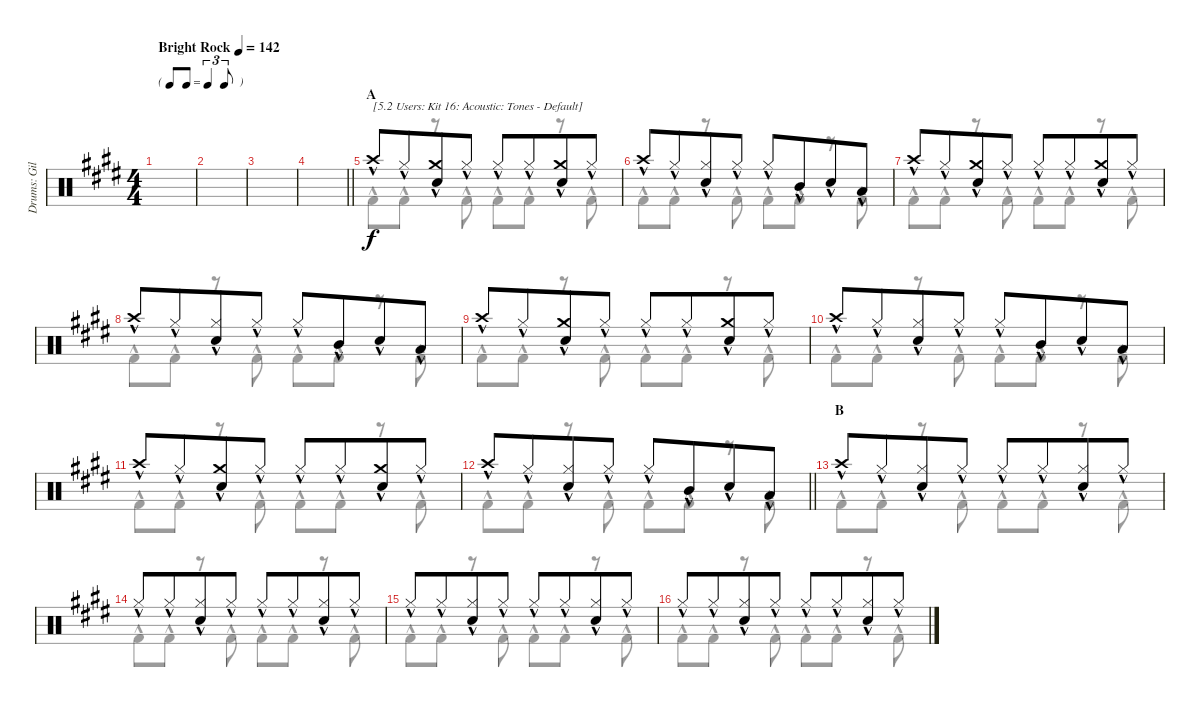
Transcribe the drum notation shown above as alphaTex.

\track ("Drums: Gil" "Drums: Gil") {instrument percussion}
\staff {score}
\articulation defaults
\voice
\ts (4 4)
\tf triplet8th
\tempo (142 "Bright Rock")
\clef neutral
\ks e
|
|
|
\barLineRight lightlight
|
\section ("" "A")
"Crash high (hit)"{hac}.8{txt "[5.2 Users: Kit 16: Acoustic: Tones - Default]"} "Hi-Hat (closed)"{hac}.8{beam merge} ("Crash medium (hit)"{hac} "Snare (hit) 2"{hac}).8 "Hi-Hat (closed)"{hac}.8 "Hi-Hat (closed)"{hac}.8 "Hi-Hat (closed)"{hac}.8{beam merge} ("Crash medium (hit)"{hac} "Snare (hit) 2"{hac}).8 "Hi-Hat (closed)"{hac}.8 |
"Crash high (hit)"{hac}.8 "Hi-Hat (closed)"{hac}.8{beam merge} ("Hi-Hat (closed)"{hac} "Snare (hit) 2"{hac}).8 "Hi-Hat (closed)"{hac}.8 "Hi-Hat (closed)"{hac}.8 "Mid Tom (hit)"{hac}.8{beam merge} "Snare (hit) 2"{hac}.8 "Low Tom (hit)"{hac}.8 |
"Crash high (hit)"{hac}.8 "Hi-Hat (closed)"{hac}.8{beam merge} ("Crash medium (hit)"{hac} "Snare (hit) 2"{hac}).8 "Hi-Hat (closed)"{hac}.8 "Hi-Hat (closed)"{hac}.8 "Hi-Hat (closed)"{hac}.8{beam merge} ("Crash medium (hit)"{hac} "Snare (hit) 2"{hac}).8 "Hi-Hat (closed)"{hac}.8 |
"Crash high (hit)"{hac}.8 "Hi-Hat (closed)"{hac}.8{beam merge} ("Hi-Hat (closed)"{hac} "Snare (hit) 2"{hac}).8 "Hi-Hat (closed)"{hac}.8 "Hi-Hat (closed)"{hac}.8 "Mid Tom (hit)"{hac}.8{beam merge} "Snare (hit) 2"{hac}.8 "Low Tom (hit)"{hac}.8 |
"Crash high (hit)"{hac}.8 "Hi-Hat (closed)"{hac}.8{beam merge} ("Crash medium (hit)"{hac} "Snare (hit) 2"{hac}).8 "Hi-Hat (closed)"{hac}.8 "Hi-Hat (closed)"{hac}.8 "Hi-Hat (closed)"{hac}.8{beam merge} ("Crash medium (hit)"{hac} "Snare (hit) 2"{hac}).8 "Hi-Hat (closed)"{hac}.8 |
"Crash high (hit)"{hac}.8 "Hi-Hat (closed)"{hac}.8{beam merge} ("Hi-Hat (closed)"{hac} "Snare (hit) 2"{hac}).8 "Hi-Hat (closed)"{hac}.8 "Hi-Hat (closed)"{hac}.8 "Mid Tom (hit)"{hac}.8{beam merge} "Snare (hit) 2"{hac}.8 "Low Tom (hit)"{hac}.8 |
"Crash high (hit)"{hac}.8 "Hi-Hat (closed)"{hac}.8{beam merge} ("Crash medium (hit)"{hac} "Snare (hit) 2"{hac}).8 "Hi-Hat (closed)"{hac}.8 "Hi-Hat (closed)"{hac}.8 "Hi-Hat (closed)"{hac}.8{beam merge} ("Crash medium (hit)"{hac} "Snare (hit) 2"{hac}).8 "Hi-Hat (closed)"{hac}.8 |
\barLineRight lightlight "Crash high (hit)"{hac}.8 "Hi-Hat (closed)"{hac}.8{beam merge}
("Hi-Hat (closed)"{hac} "Snare (hit) 2"{hac}).8 "Hi-Hat (closed)"{hac}.8 "Hi-Hat (closed)"{hac}.8 "Mid Tom (hit)"{hac}.8{beam merge} "Snare (hit) 2"{hac}.8 "Low Tom (hit)"{hac}.8 |
\section ("" "B")
"Crash high (hit)"{hac}.8 "Hi-Hat (closed)"{hac}.8{beam merge} ("Hi-Hat (closed)"{hac} "Snare (hit) 2"{hac}).8 "Hi-Hat (closed)"{hac}.8 "Hi-Hat (closed)"{hac}.8 "Hi-Hat (closed)"{hac}.8{beam merge} ("Hi-Hat (closed)"{hac} "Snare (hit) 2"{hac}).8 "Hi-Hat (closed)"{hac}.8 |
"Hi-Hat (closed)"{hac}.8 "Hi-Hat (closed)"{hac}.8{beam merge} ("Hi-Hat (closed)"{hac} "Snare (hit) 2"{hac}).8 "Hi-Hat (closed)"{hac}.8 "Hi-Hat (closed)"{hac}.8 "Hi-Hat (closed)"{hac}.8{beam merge} ("Hi-Hat (closed)"{hac} "Snare (hit) 2"{hac}).8 "Hi-Hat (closed)"{hac}.8 |
"Hi-Hat (closed)"{hac}.8 "Hi-Hat (closed)"{hac}.8{beam merge} ("Hi-Hat (closed)"{hac} "Snare (hit) 2"{hac}).8 "Hi-Hat (closed)"{hac}.8 "Hi-Hat (closed)"{hac}.8 "Hi-Hat (closed)"{hac}.8{beam merge} ("Hi-Hat (closed)"{hac} "Snare (hit) 2"{hac}).8 "Hi-Hat (closed)"{hac}.8 |
"Hi-Hat (closed)"{hac}.8 "Hi-Hat (closed)"{hac}.8{beam merge} ("Hi-Hat (closed)"{hac} "Snare (hit) 2"{hac}).8 "Hi-Hat (closed)"{hac}.8 "Hi-Hat (closed)"{hac}.8 "Hi-Hat (closed)"{hac}.8{beam merge} ("Hi-Hat (closed)"{hac} "Snare (hit) 2"{hac}).8 "Hi-Hat (closed)"{hac}.8
\voice
\clef neutral
\ottava regular
\simile none
\ks e
|
|
|
\barLineRight lightlight
|
"Kick (hit) 2"{hac}.8 "Kick (hit) 2"{hac}.8 r.8 "Kick (hit) 2"{hac}.8 "Kick (hit) 2"{hac}.8 "Kick (hit) 2"{hac}.8 r.8 "Kick (hit) 2"{hac}.8 |
"Kick (hit) 2"{hac}.8 "Kick (hit) 2"{hac}.8 r.8 "Kick (hit) 2"{hac}.8 "Kick (hit) 2"{hac}.8 "Kick (hit) 2"{hac}.8 r.8 "Kick (hit) 2"{hac}.8 |
"Kick (hit) 2"{hac}.8 "Kick (hit) 2"{hac}.8 r.8 "Kick (hit) 2"{hac}.8 "Kick (hit) 2"{hac}.8 "Kick (hit) 2"{hac}.8 r.8 "Kick (hit) 2"{hac}.8 |
"Kick (hit) 2"{hac}.8 "Kick (hit) 2"{hac}.8 r.8 "Kick (hit) 2"{hac}.8 "Kick (hit) 2"{hac}.8 "Kick (hit) 2"{hac}.8 r.8 "Kick (hit) 2"{hac}.8 |
"Kick (hit) 2"{hac}.8 "Kick (hit) 2"{hac}.8 r.8 "Kick (hit) 2"{hac}.8 "Kick (hit) 2"{hac}.8 "Kick (hit) 2"{hac}.8 r.8 "Kick (hit) 2"{hac}.8 |
"Kick (hit) 2"{hac}.8 "Kick (hit) 2"{hac}.8 r.8 "Kick (hit) 2"{hac}.8 "Kick (hit) 2"{hac}.8 "Kick (hit) 2"{hac}.8 r.8 "Kick (hit) 2"{hac}.8 |
"Kick (hit) 2"{hac}.8 "Kick (hit) 2"{hac}.8 r.8 "Kick (hit) 2"{hac}.8 "Kick (hit) 2"{hac}.8 "Kick (hit) 2"{hac}.8 r.8 "Kick (hit) 2"{hac}.8 |
\barLineRight lightlight "Kick (hit) 2"{hac}.8 "Kick (hit) 2"{hac}.8
r.8 "Kick (hit) 2"{hac}.8 "Kick (hit) 2"{hac}.8 "Kick (hit) 2"{hac}.8 r.8 "Kick (hit) 2"{hac}.8 |
"Kick (hit) 2"{hac}.8 "Kick (hit) 2"{hac}.8 r.8 "Kick (hit) 2"{hac}.8 "Kick (hit) 2"{hac}.8 "Kick (hit) 2"{hac}.8 r.8 "Kick (hit) 2"{hac}.8 |
"Kick (hit) 2"{hac}.8 "Kick (hit) 2"{hac}.8 r.8 "Kick (hit) 2"{hac}.8 "Kick (hit) 2"{hac}.8 "Kick (hit) 2"{hac}.8 r.8 "Kick (hit) 2"{hac}.8 |
"Kick (hit) 2"{hac}.8 "Kick (hit) 2"{hac}.8 r.8 "Kick (hit) 2"{hac}.8 "Kick (hit) 2"{hac}.8 "Kick (hit) 2"{hac}.8 r.8 "Kick (hit) 2"{hac}.8 |
"Kick (hit) 2"{hac}.8 "Kick (hit) 2"{hac}.8 r.8 "Kick (hit) 2"{hac}.8 "Kick (hit) 2"{hac}.8 "Kick (hit) 2"{hac}.8 r.8 "Kick (hit) 2"{hac}.8
